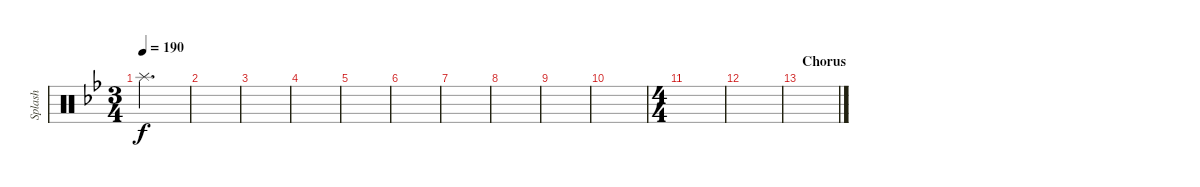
\track ("Splash" "Splash") {instrument percussion}
\staff {score}
\articulation defaults
\ts (3 4)
\tempo 190
\clef neutral
\ks bb "Splash (hit)".2{d dy f}
|
|
|
|
|
|
|
|
|
|
\ts (4 4)
|
|
\section ("" "Chorus")
